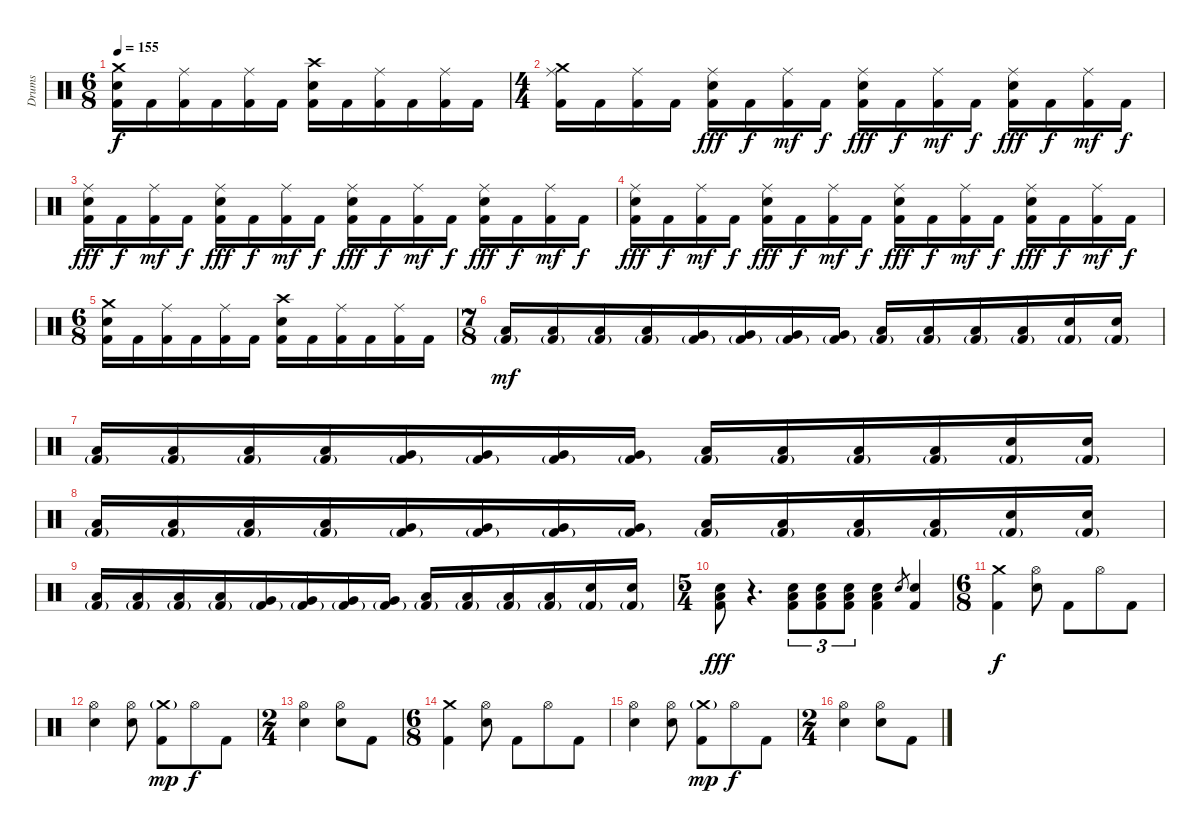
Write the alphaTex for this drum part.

\track ("Drums" "Drums") {instrument percussion}
\staff {score}
\articulation defaults
\ts (6 8)
\tempo 155
\clef neutral
\ks c
("Crash medium (hit)" "Electric Snare (hit)" "Kick (hit) 2").16{dy f} "Kick (hit) 2".16 ("Ride (middle)" "Kick (hit) 2").16 "Kick (hit) 2".16 ("Ride (middle)" "Kick (hit) 2").16 "Kick (hit) 2".16 ("Crash high (hit)" "Electric Snare (hit)" "Kick (hit) 2").16 "Kick (hit) 2".16 ("Ride (middle)" "Kick (hit) 2").16 "Kick (hit) 2".16 ("Ride (middle)" "Kick (hit) 2").16 "Kick (hit) 2".16 |
\ts (4 4)
("Crash medium (hit)" "Ride (middle)" "Kick (hit) 2").16 "Kick (hit) 2".16 ("Ride (middle)" "Kick (hit) 2").16 "Kick (hit) 2".16 ("Ride (middle)" "Electric Snare (hit)" "Kick (hit) 2").16{dy fff} "Kick (hit) 2".16{dy f} ("Ride (middle)" "Kick (hit) 2").16{dy mf} "Kick (hit) 2".16{dy f} ("Ride (middle)" "Electric Snare (hit)" "Kick (hit) 2").16{dy fff} "Kick (hit) 2".16{dy f} ("Ride (middle)" "Kick (hit) 2").16{dy mf} "Kick (hit) 2".16{dy f} ("Ride (middle)" "Electric Snare (hit)" "Kick (hit) 2").16{dy fff} "Kick (hit) 2".16{dy f} ("Ride (middle)" "Kick (hit) 2").16{dy mf} "Kick (hit) 2".16{dy f} |
("Ride (middle)" "Electric Snare (hit)" "Kick (hit) 2").16{dy fff} "Kick (hit) 2".16{dy f} ("Ride (middle)" "Kick (hit) 2").16{dy mf} "Kick (hit) 2".16{dy f} ("Ride (middle)" "Electric Snare (hit)" "Kick (hit) 2").16{dy fff} "Kick (hit) 2".16{dy f} ("Ride (middle)" "Kick (hit) 2").16{dy mf} "Kick (hit) 2".16{dy f} ("Ride (middle)" "Electric Snare (hit)" "Kick (hit) 2").16{dy fff} "Kick (hit) 2".16{dy f} ("Ride (middle)" "Kick (hit) 2").16{dy mf} "Kick (hit) 2".16{dy f} ("Ride (middle)" "Electric Snare (hit)" "Kick (hit) 2").16{dy fff} "Kick (hit) 2".16{dy f} ("Ride (middle)" "Kick (hit) 2").16{dy mf} "Kick (hit) 2".16{dy f} |
("Ride (middle)" "Electric Snare (hit)" "Kick (hit) 2").16{dy fff} "Kick (hit) 2".16{dy f} ("Ride (middle)" "Kick (hit) 2").16{dy mf} "Kick (hit) 2".16{dy f} ("Ride (middle)" "Electric Snare (hit)" "Kick (hit) 2").16{dy fff} "Kick (hit) 2".16{dy f} ("Ride (middle)" "Kick (hit) 2").16{dy mf} "Kick (hit) 2".16{dy f} ("Ride (middle)" "Electric Snare (hit)" "Kick (hit) 2").16{dy fff} "Kick (hit) 2".16{dy f} ("Ride (middle)" "Kick (hit) 2").16{dy mf} "Kick (hit) 2".16{dy f} ("Ride (middle)" "Electric Snare (hit)" "Kick (hit) 2").16{dy fff} "Kick (hit) 2".16{dy f} ("Ride (middle)" "Kick (hit) 2").16{dy mf} "Kick (hit) 2".16{dy f} |
\ts (6 8)
("Crash medium (hit)" "Electric Snare (hit)" "Kick (hit) 2").16 "Kick (hit) 2".16 ("Ride (middle)" "Kick (hit) 2").16 "Kick (hit) 2".16 ("Ride (middle)" "Kick (hit) 2").16 "Kick (hit) 2".16 ("Crash high (hit)" "Electric Snare (hit)" "Kick (hit) 2").16 "Kick (hit) 2".16 ("Ride (middle)" "Kick (hit) 2").16 "Kick (hit) 2".16 ("Ride (middle)" "Kick (hit) 2").16 "Kick (hit) 2".16 |
\ts (7 8)
("Low Tom (hit)" "Kick (hit) 2"{g}).16{dy mf} ("Low Tom (hit)" "Kick (hit) 2"{g}).16 ("Low Tom (hit)" "Kick (hit) 2"{g}).16 ("Low Tom (hit)" "Kick (hit) 2"{g}).16 ("Very Low Tom (hit)" "Kick (hit) 2"{g}).16 ("Very Low Tom (hit)" "Kick (hit) 2"{g}).16 ("Very Low Tom (hit)" "Kick (hit) 2"{g}).16 ("Very Low Tom (hit)" "Kick (hit) 2"{g}).16 ("Low Floor Tom (hit)" "Kick (hit) 2"{g}).16 ("Low Floor Tom (hit)" "Kick (hit) 2"{g}).16 ("Low Floor Tom (hit)" "Kick (hit) 2"{g}).16 ("Low Floor Tom (hit)" "Kick (hit) 2"{g}).16 ("Electric Snare (hit)" "Kick (hit) 2"{g}).16 ("Electric Snare (hit)" "Kick (hit) 2"{g}).16 |
("Low Tom (hit)" "Kick (hit) 2"{g}).16 ("Low Tom (hit)" "Kick (hit) 2"{g}).16 ("Low Tom (hit)" "Kick (hit) 2"{g}).16 ("Low Tom (hit)" "Kick (hit) 2"{g}).16 ("Very Low Tom (hit)" "Kick (hit) 2"{g}).16 ("Very Low Tom (hit)" "Kick (hit) 2"{g}).16 ("Very Low Tom (hit)" "Kick (hit) 2"{g}).16 ("Very Low Tom (hit)" "Kick (hit) 2"{g}).16 ("Low Floor Tom (hit)" "Kick (hit) 2"{g}).16 ("Low Floor Tom (hit)" "Kick (hit) 2"{g}).16 ("Low Floor Tom (hit)" "Kick (hit) 2"{g}).16 ("Low Floor Tom (hit)" "Kick (hit) 2"{g}).16 ("Electric Snare (hit)" "Kick (hit) 2"{g}).16 ("Electric Snare (hit)" "Kick (hit) 2"{g}).16 |
("Low Tom (hit)" "Kick (hit) 2"{g}).16 ("Low Tom (hit)" "Kick (hit) 2"{g}).16 ("Low Tom (hit)" "Kick (hit) 2"{g}).16 ("Low Tom (hit)" "Kick (hit) 2"{g}).16 ("Very Low Tom (hit)" "Kick (hit) 2"{g}).16 ("Very Low Tom (hit)" "Kick (hit) 2"{g}).16 ("Very Low Tom (hit)" "Kick (hit) 2"{g}).16 ("Very Low Tom (hit)" "Kick (hit) 2"{g}).16 ("Low Floor Tom (hit)" "Kick (hit) 2"{g}).16 ("Low Floor Tom (hit)" "Kick (hit) 2"{g}).16 ("Low Floor Tom (hit)" "Kick (hit) 2"{g}).16 ("Low Floor Tom (hit)" "Kick (hit) 2"{g}).16 ("Electric Snare (hit)" "Kick (hit) 2"{g}).16 ("Electric Snare (hit)" "Kick (hit) 2"{g}).16 |
("Low Tom (hit)" "Kick (hit) 2"{g}).16 ("Low Tom (hit)" "Kick (hit) 2"{g}).16 ("Low Tom (hit)" "Kick (hit) 2"{g}).16 ("Low Tom (hit)" "Kick (hit) 2"{g}).16 ("Very Low Tom (hit)" "Kick (hit) 2"{g}).16 ("Very Low Tom (hit)" "Kick (hit) 2"{g}).16 ("Very Low Tom (hit)" "Kick (hit) 2"{g}).16 ("Very Low Tom (hit)" "Kick (hit) 2"{g}).16 ("Low Floor Tom (hit)" "Kick (hit) 2"{g}).16 ("Low Floor Tom (hit)" "Kick (hit) 2"{g}).16 ("Low Floor Tom (hit)" "Kick (hit) 2"{g}).16 ("Low Floor Tom (hit)" "Kick (hit) 2"{g}).16 ("Electric Snare (hit)" "Kick (hit) 2"{g}).16 ("Electric Snare (hit)" "Kick (hit) 2"{g}).16 |
\ts (5 4)
("Low Floor Tom (hit)" "Electric Snare (hit)" "Kick (hit) 2").8{dy fff} r.4{d} ("Low Floor Tom (hit)" "Electric Snare (hit)" "Kick (hit) 2").8{tu (3 2)} ("Low Floor Tom (hit)" "Electric Snare (hit)" "Kick (hit) 2").8{tu (3 2)} ("Low Floor Tom (hit)" "Electric Snare (hit)" "Kick (hit) 2").8{tu (3 2)} ("Low Floor Tom (hit)" "Electric Snare (hit)" "Kick (hit) 2").4 "Electric Snare (hit)".8{gr} ("Electric Snare (hit)" "Kick (hit) 2").4 |
\ts (6 8)
("Crash medium (hit)" "Kick (hit) 2").4{dy f} ("Hi-Hat (open)" "Electric Snare (hit)").8 "Kick (hit) 2".8 "Hi-Hat (open)".8 "Kick (hit) 2".8 |
("Hi-Hat (open)" "Electric Snare (hit)").4 ("Hi-Hat (open)" "Electric Snare (hit)").8 ("Crash medium (hit)"{g} "Kick (hit) 2").8{dy mp} "Hi-Hat (open)".8{dy f} "Kick (hit) 2".8 |
\ts (2 4)
("Hi-Hat (open)" "Electric Snare (hit)").4 ("Hi-Hat (open)" "Electric Snare (hit)").8 "Kick (hit) 2".8 |
\ts (6 8)
("Crash medium (hit)" "Kick (hit) 2").4 ("Hi-Hat (open)" "Electric Snare (hit)").8 "Kick (hit) 2".8 "Hi-Hat (open)".8 "Kick (hit) 2".8 |
("Hi-Hat (open)" "Electric Snare (hit)").4 ("Hi-Hat (open)" "Electric Snare (hit)").8 ("Crash medium (hit)"{g} "Kick (hit) 2").8{dy mp} "Hi-Hat (open)".8{dy f} "Kick (hit) 2".8 |
\ts (2 4)
("Hi-Hat (open)" "Electric Snare (hit)").4 ("Hi-Hat (open)" "Electric Snare (hit)").8 "Kick (hit) 2".8
